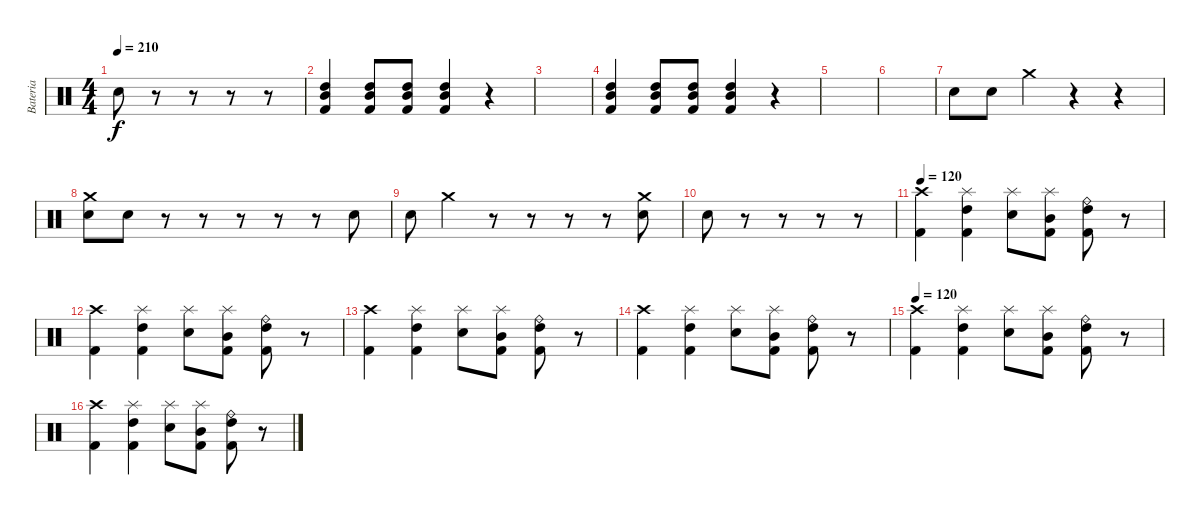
\track ("Bateria" "Bateria") {instrument percussion}
\staff {score}
\articulation defaults
\ts (4 4)
\tempo 210
\clef neutral
\ks c "Electric Snare (hit)".8{dy f}
r.8 r.8 r.8 r.8 |
("High Tom (hit)" "Mid Tom (hit)" "Kick (hit) 2").4 ("High Tom (hit)" "Mid Tom (hit)" "Kick (hit) 2").8 ("High Tom (hit)" "Mid Tom (hit)" "Kick (hit) 2").8 ("High Tom (hit)" "Mid Tom (hit)" "Kick (hit) 2").4 r.4 |
|
("High Tom (hit)" "Mid Tom (hit)" "Kick (hit) 2").4 ("High Tom (hit)" "Mid Tom (hit)" "Kick (hit) 2").8 ("High Tom (hit)" "Mid Tom (hit)" "Kick (hit) 2").8 ("High Tom (hit)" "Mid Tom (hit)" "Kick (hit) 2").4 r.4 |
|
|
"Electric Snare (hit)".8 "Electric Snare (hit)".8 "Crash medium (hit)".4 r.4 r.4 |
("Crash medium (hit)" "Electric Snare (hit)").8 "Electric Snare (hit)".8 r.8 r.8 r.8 r.8 r.8 "Electric Snare (hit)".8 |
"Electric Snare (hit)".8 "Crash medium (hit)".4 r.8 r.8 r.8 r.8 ("Crash medium (hit)" "Electric Snare (hit)").8 |
"Electric Snare (hit)".8 r.8 r.8 r.8 r.8 |
\tempo 120
("Crash high (hit)" "Kick (hit) 2").4 ("Splash (hit)" "Kick (hit) 2" "High Tom (hit)").4 ("Splash (hit)" "Electric Snare (hit)").8 ("Splash (hit)" "Mid Tom (hit)" "Kick (hit) 2").8 ("Ride (bell)" "Kick (hit) 2" "High Tom (hit)").8 r.8 |
("Crash high (hit)" "Kick (hit) 2").4 ("Splash (hit)" "Kick (hit) 2" "High Tom (hit)").4 ("Splash (hit)" "Electric Snare (hit)").8 ("Splash (hit)" "Mid Tom (hit)" "Kick (hit) 2").8 ("Ride (bell)" "Kick (hit) 2" "High Tom (hit)").8 r.8 |
("Crash high (hit)" "Kick (hit) 2").4 ("Splash (hit)" "Kick (hit) 2" "High Tom (hit)").4 ("Splash (hit)" "Electric Snare (hit)").8 ("Splash (hit)" "Mid Tom (hit)" "Kick (hit) 2").8 ("Ride (bell)" "Kick (hit) 2" "High Tom (hit)").8 r.8 |
("Crash high (hit)" "Kick (hit) 2").4 ("Splash (hit)" "Kick (hit) 2" "High Tom (hit)").4 ("Splash (hit)" "Electric Snare (hit)").8 ("Splash (hit)" "Mid Tom (hit)" "Kick (hit) 2").8 ("Ride (bell)" "Kick (hit) 2" "High Tom (hit)").8 r.8 |
\tempo 120
("Crash high (hit)" "Kick (hit) 2").4 ("Splash (hit)" "Kick (hit) 2" "High Tom (hit)").4 ("Splash (hit)" "Electric Snare (hit)").8 ("Splash (hit)" "Mid Tom (hit)" "Kick (hit) 2").8 ("Ride (bell)" "Kick (hit) 2" "High Tom (hit)").8 r.8 |
("Crash high (hit)" "Kick (hit) 2").4 ("Splash (hit)" "Kick (hit) 2" "High Tom (hit)").4 ("Splash (hit)" "Electric Snare (hit)").8 ("Splash (hit)" "Mid Tom (hit)" "Kick (hit) 2").8 ("Ride (bell)" "Kick (hit) 2" "High Tom (hit)").8 r.8
